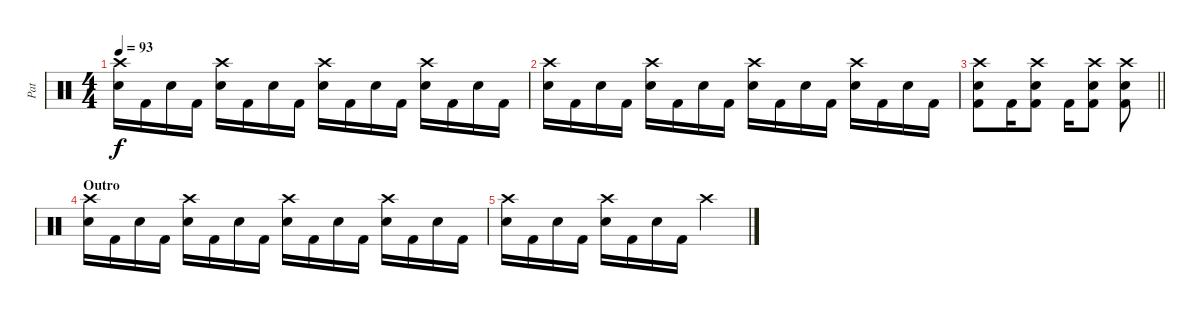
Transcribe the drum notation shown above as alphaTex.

\track ("Pat" "Pat") {instrument percussion}
\staff {score}
\articulation defaults
\ts (4 4)
\tempo 93
\clef neutral
\ks c
("Crash high (hit)" "Electric Snare (hit)").16{dy f} "Kick (hit) 2".16 "Electric Snare (hit)".16 "Kick (hit) 2".16 ("Crash high (hit)" "Electric Snare (hit)").16 "Kick (hit) 2".16 "Electric Snare (hit)".16 "Kick (hit) 2".16 ("Crash high (hit)" "Electric Snare (hit)").16 "Kick (hit) 2".16 "Electric Snare (hit)".16 "Kick (hit) 2".16 ("Crash high (hit)" "Electric Snare (hit)").16 "Kick (hit) 2".16 "Electric Snare (hit)".16 "Kick (hit) 2".16 |
("Crash high (hit)" "Electric Snare (hit)").16 "Kick (hit) 2".16 "Electric Snare (hit)".16 "Kick (hit) 2".16 ("Crash high (hit)" "Electric Snare (hit)").16 "Kick (hit) 2".16 "Electric Snare (hit)".16 "Kick (hit) 2".16 ("Crash high (hit)" "Electric Snare (hit)").16 "Kick (hit) 2".16 "Electric Snare (hit)".16 "Kick (hit) 2".16 ("Crash high (hit)" "Electric Snare (hit)").16 "Kick (hit) 2".16 "Electric Snare (hit)".16 "Kick (hit) 2".16 |
\barLineRight lightlight
("Crash high (hit)" "Electric Snare (hit)" "Kick (hit) 2").8 "Kick (hit) 2".16 ("Crash high (hit)" "Electric Snare (hit)" "Kick (hit) 2").8 "Kick (hit) 2".16 ("Crash high (hit)" "Electric Snare (hit)" "Kick (hit) 2").8 ("Crash high (hit)" "Electric Snare (hit)" "Kick (hit) 2").8 |
\section ("" "Outro")
("Crash high (hit)" "Electric Snare (hit)").16 "Kick (hit) 2".16 "Electric Snare (hit)".16 "Kick (hit) 2".16 ("Crash high (hit)" "Electric Snare (hit)").16 "Kick (hit) 2".16 "Electric Snare (hit)".16 "Kick (hit) 2".16 ("Crash high (hit)" "Electric Snare (hit)").16 "Kick (hit) 2".16 "Electric Snare (hit)".16 "Kick (hit) 2".16 ("Crash high (hit)" "Electric Snare (hit)").16 "Kick (hit) 2".16 "Electric Snare (hit)".16 "Kick (hit) 2".16 |
("Crash high (hit)" "Electric Snare (hit)").16 "Kick (hit) 2".16 "Electric Snare (hit)".16 "Kick (hit) 2".16 ("Crash high (hit)" "Electric Snare (hit)").16 "Kick (hit) 2".16 "Electric Snare (hit)".16 "Kick (hit) 2".16 "Crash high (hit)".2
